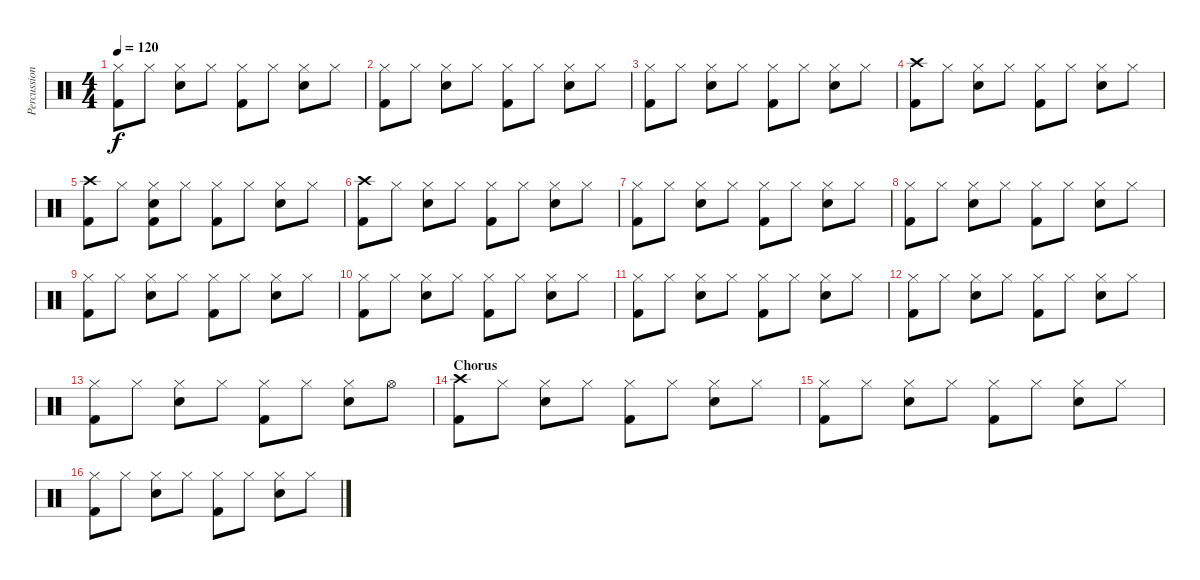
\track ("Percussion" "Percussion") {instrument percussion}
\staff {score}
\articulation defaults
\ts (4 4)
\tempo 120
\clef neutral
\ks c
("Hi-Hat (closed)" "Kick (hit) 2").8{dy f} "Hi-Hat (closed)".8 ("Hi-Hat (closed)" "Electric Snare (hit)").8 "Hi-Hat (closed)".8 ("Hi-Hat (closed)" "Kick (hit) 2").8 "Hi-Hat (closed)".8 ("Hi-Hat (closed)" "Electric Snare (hit)").8 "Hi-Hat (closed)".8 |
("Hi-Hat (closed)" "Kick (hit) 2").8 "Hi-Hat (closed)".8 ("Hi-Hat (closed)" "Electric Snare (hit)").8 "Hi-Hat (closed)".8 ("Hi-Hat (closed)" "Kick (hit) 2").8 "Hi-Hat (closed)".8 ("Hi-Hat (closed)" "Electric Snare (hit)").8 "Hi-Hat (closed)".8 |
("Hi-Hat (closed)" "Kick (hit) 2").8 "Hi-Hat (closed)".8 ("Hi-Hat (closed)" "Electric Snare (hit)").8 "Hi-Hat (closed)".8 ("Hi-Hat (closed)" "Kick (hit) 2").8 "Hi-Hat (closed)".8 ("Hi-Hat (closed)" "Electric Snare (hit)").8 "Hi-Hat (closed)".8 |
("Crash high (hit)" "Kick (hit) 2").8 "Hi-Hat (closed)".8 ("Hi-Hat (closed)" "Electric Snare (hit)").8 "Hi-Hat (closed)".8 ("Hi-Hat (closed)" "Kick (hit) 2").8 "Hi-Hat (closed)".8 ("Hi-Hat (closed)" "Electric Snare (hit)").8 "Hi-Hat (closed)".8 |
("Crash high (hit)" "Kick (hit) 2").8 "Hi-Hat (closed)".8 ("Hi-Hat (closed)" "Electric Snare (hit)" "Kick (hit) 2").8 "Hi-Hat (closed)".8 ("Hi-Hat (closed)" "Kick (hit) 2").8 "Hi-Hat (closed)".8 ("Hi-Hat (closed)" "Electric Snare (hit)").8 "Hi-Hat (closed)".8 |
("Crash high (hit)" "Kick (hit) 2").8 "Hi-Hat (closed)".8 ("Hi-Hat (closed)" "Electric Snare (hit)").8 "Hi-Hat (closed)".8 ("Hi-Hat (closed)" "Kick (hit) 2").8 "Hi-Hat (closed)".8 ("Hi-Hat (closed)" "Electric Snare (hit)").8 "Hi-Hat (closed)".8 |
("Hi-Hat (closed)" "Kick (hit) 2").8 "Hi-Hat (closed)".8 ("Hi-Hat (closed)" "Electric Snare (hit)").8 "Hi-Hat (closed)".8 ("Hi-Hat (closed)" "Kick (hit) 2").8 "Hi-Hat (closed)".8 ("Hi-Hat (closed)" "Electric Snare (hit)").8 "Hi-Hat (closed)".8 |
("Hi-Hat (closed)" "Kick (hit) 2").8 "Hi-Hat (closed)".8 ("Hi-Hat (closed)" "Electric Snare (hit)").8 "Hi-Hat (closed)".8 ("Hi-Hat (closed)" "Kick (hit) 2").8 "Hi-Hat (closed)".8 ("Hi-Hat (closed)" "Electric Snare (hit)").8 "Hi-Hat (closed)".8 |
("Hi-Hat (closed)" "Kick (hit) 2").8 "Hi-Hat (closed)".8 ("Hi-Hat (closed)" "Electric Snare (hit)").8 "Hi-Hat (closed)".8 ("Hi-Hat (closed)" "Kick (hit) 2").8 "Hi-Hat (closed)".8 ("Hi-Hat (closed)" "Electric Snare (hit)").8 "Hi-Hat (closed)".8 |
("Hi-Hat (closed)" "Kick (hit) 2").8 "Hi-Hat (closed)".8 ("Hi-Hat (closed)" "Electric Snare (hit)").8 "Hi-Hat (closed)".8 ("Hi-Hat (closed)" "Kick (hit) 2").8 "Hi-Hat (closed)".8 ("Hi-Hat (closed)" "Electric Snare (hit)").8 "Hi-Hat (closed)".8 |
("Hi-Hat (closed)" "Kick (hit) 2").8 "Hi-Hat (closed)".8 ("Hi-Hat (closed)" "Electric Snare (hit)").8 "Hi-Hat (closed)".8 ("Hi-Hat (closed)" "Kick (hit) 2").8 "Hi-Hat (closed)".8 ("Hi-Hat (closed)" "Electric Snare (hit)").8 "Hi-Hat (closed)".8 |
("Hi-Hat (closed)" "Kick (hit) 2").8 "Hi-Hat (closed)".8 ("Hi-Hat (closed)" "Electric Snare (hit)").8 "Hi-Hat (closed)".8 ("Hi-Hat (closed)" "Kick (hit) 2").8 "Hi-Hat (closed)".8 ("Hi-Hat (closed)" "Electric Snare (hit)").8 "Hi-Hat (closed)".8 |
("Hi-Hat (closed)" "Kick (hit) 2").8 "Hi-Hat (closed)".8 ("Hi-Hat (closed)" "Electric Snare (hit)").8 "Hi-Hat (closed)".8 ("Hi-Hat (closed)" "Kick (hit) 2").8 "Hi-Hat (closed)".8 ("Hi-Hat (closed)" "Electric Snare (hit)").8 "Hi-Hat (open)".8 |
\section ("" "Chorus")
("Crash high (hit)" "Kick (hit) 2").8 "Hi-Hat (closed)".8 ("Hi-Hat (closed)" "Electric Snare (hit)").8 "Hi-Hat (closed)".8 ("Hi-Hat (closed)" "Kick (hit) 2").8 "Hi-Hat (closed)".8 ("Hi-Hat (closed)" "Electric Snare (hit)").8 "Hi-Hat (closed)".8 |
("Hi-Hat (closed)" "Kick (hit) 2").8 "Hi-Hat (closed)".8 ("Hi-Hat (closed)" "Electric Snare (hit)").8 "Hi-Hat (closed)".8 ("Hi-Hat (closed)" "Kick (hit) 2").8 "Hi-Hat (closed)".8 ("Hi-Hat (closed)" "Electric Snare (hit)").8 "Hi-Hat (closed)".8 |
("Hi-Hat (closed)" "Kick (hit) 2").8 "Hi-Hat (closed)".8 ("Hi-Hat (closed)" "Electric Snare (hit)").8 "Hi-Hat (closed)".8 ("Hi-Hat (closed)" "Kick (hit) 2").8 "Hi-Hat (closed)".8 ("Hi-Hat (closed)" "Electric Snare (hit)").8 "Hi-Hat (closed)".8
